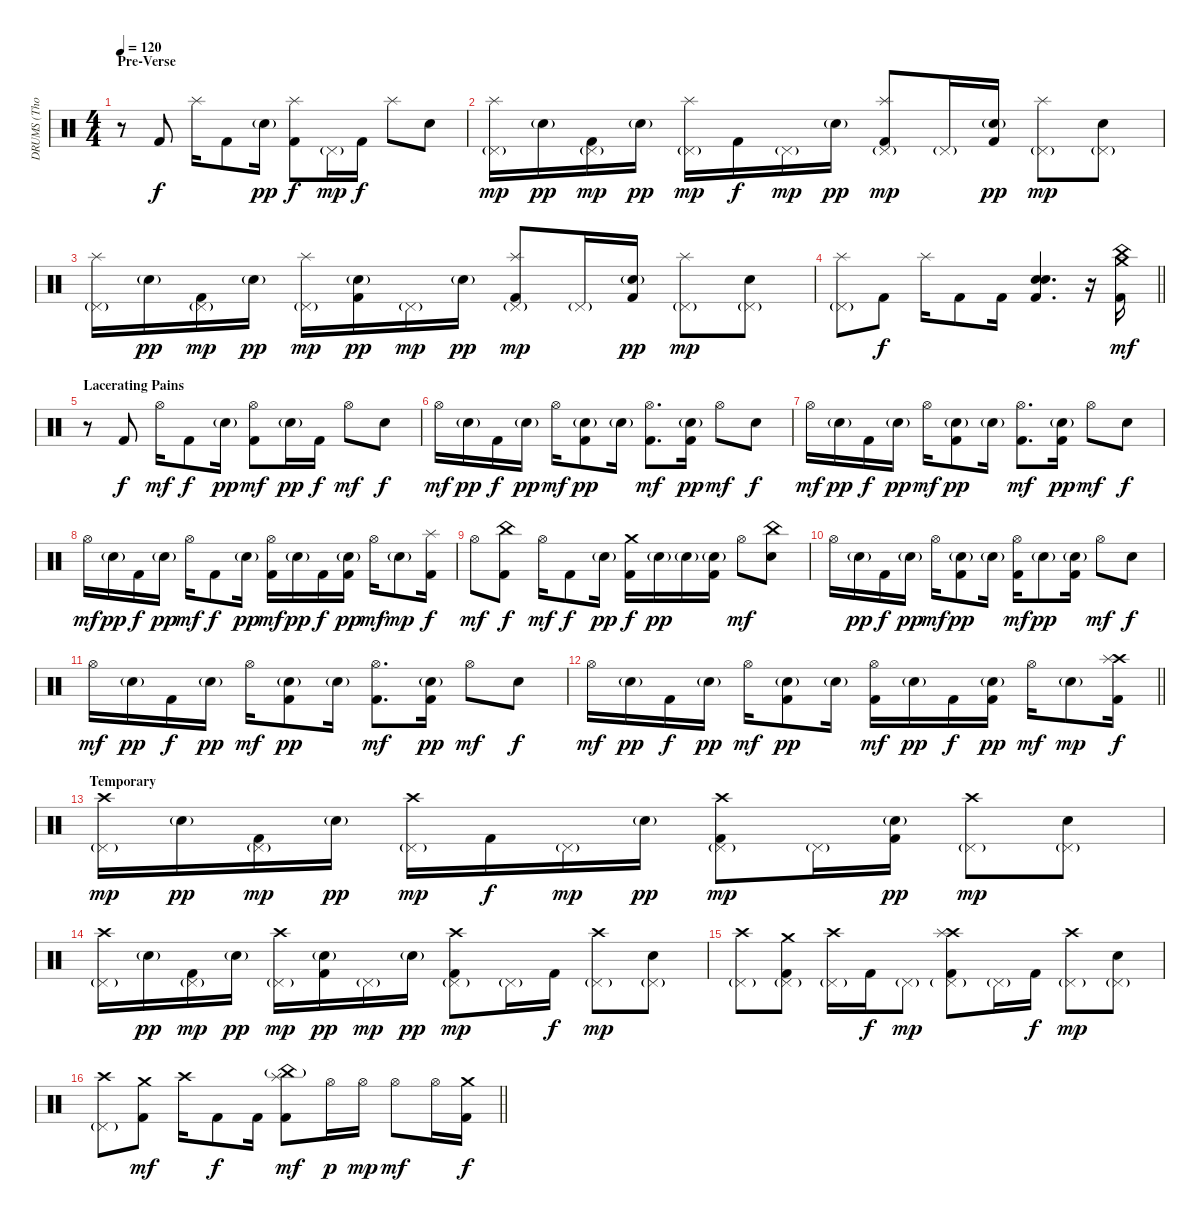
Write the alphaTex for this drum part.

\track ("DRUMS (Thomas Haake)" "DRUMS (Tho") {instrument percussion}
\staff {score}
\articulation defaults
\ts (4 4)
\section ("" "Pre-Verse")
\tempo 120
\clef neutral
\ks c
r.8{dy mf} "Kick (hit) 2".8{dy f} "Splash (hit)".16 "Kick (hit) 2".8 "Electric Snare (hit)"{g}.16{dy pp} ("Splash (hit)" "Kick (hit) 2").8{dy f} "Pedal Hi-Hat (hit)"{g}.16{dy mp} "Kick (hit) 2".16{dy f} "Splash (hit)".8 "Electric Snare (hit)".8 |
("Splash (hit)" "Pedal Hi-Hat (hit)"{g}).16{dy mp} "Electric Snare (hit)"{g}.16{dy pp} ("Pedal Hi-Hat (hit)"{g} "Kick (hit) 2").16{dy mp} "Electric Snare (hit)"{g}.16{dy pp} ("Splash (hit)" "Pedal Hi-Hat (hit)"{g}).16{dy mp} "Kick (hit) 2".16{dy f} "Pedal Hi-Hat (hit)"{g}.16{dy mp} "Electric Snare (hit)"{g}.16{dy pp} ("Splash (hit)" "Pedal Hi-Hat (hit)"{g} "Kick (hit) 2").8{dy mp} "Pedal Hi-Hat (hit)"{g}.16 ("Electric Snare (hit)"{g} "Kick (hit) 2").16{dy pp} ("Splash (hit)" "Pedal Hi-Hat (hit)"{g}).8{dy mp} ("Pedal Hi-Hat (hit)"{g} "Electric Snare (hit)").8 |
("Splash (hit)" "Pedal Hi-Hat (hit)"{g}).16 "Electric Snare (hit)"{g}.16{dy pp} ("Pedal Hi-Hat (hit)"{g} "Kick (hit) 2").16{dy mp} "Electric Snare (hit)"{g}.16{dy pp} ("Splash (hit)" "Pedal Hi-Hat (hit)"{g}).16{dy mp} ("Electric Snare (hit)"{g} "Kick (hit) 2").16{dy pp} "Pedal Hi-Hat (hit)"{g}.16{dy mp} "Electric Snare (hit)"{g}.16{dy pp} ("Splash (hit)" "Pedal Hi-Hat (hit)"{g} "Kick (hit) 2").8{dy mp} "Pedal Hi-Hat (hit)"{g}.16 ("Electric Snare (hit)"{g} "Kick (hit) 2").16{dy pp} ("Splash (hit)" "Pedal Hi-Hat (hit)"{g}).8{dy mp} ("Pedal Hi-Hat (hit)"{g} "Electric Snare (hit)").8 |
\barLineRight lightlight
("Splash (hit)" "Pedal Hi-Hat (hit)"{g}).8 "Kick (hit) 2".8{dy f} "Splash (hit)".16 "Kick (hit) 2".8 "Kick (hit) 2".16 ("Electric Snare (hit)" "Electric Snare (hit)" "Kick (hit) 2").4{d bd 30} r.16 ("Crash medium (hit)" "China (hit)" "Kick (hit) 2").16{dy mf} |
\section ("" "Lacerating Pains")
r.8 "Kick (hit) 2".8{dy f} "Hi-Hat (open)".16{dy mf} "Kick (hit) 2".8{dy f} "Electric Snare (hit)"{g}.16{dy pp} ("Hi-Hat (open)" "Kick (hit) 2").8{dy mf} "Electric Snare (hit)"{g}.16{dy pp} "Kick (hit) 2".16{dy f} "Hi-Hat (open)".8{dy mf} "Electric Snare (hit)".8{dy f} |
"Hi-Hat (open)".16{dy mf} "Electric Snare (hit)"{g}.16{dy pp} "Kick (hit) 2".16{dy f} "Electric Snare (hit)"{g}.16{dy pp} "Hi-Hat (open)".16{dy mf} ("Electric Snare (hit)"{g} "Kick (hit) 2").8{dy pp} "Electric Snare (hit)"{g}.16 ("Hi-Hat (open)" "Kick (hit) 2").8{d dy mf} ("Electric Snare (hit)"{g} "Kick (hit) 2").16{dy pp} "Hi-Hat (open)".8{dy mf} "Electric Snare (hit)".8{dy f} |
"Hi-Hat (open)".16{dy mf} "Electric Snare (hit)"{g}.16{dy pp} "Kick (hit) 2".16{dy f} "Electric Snare (hit)"{g}.16{dy pp} "Hi-Hat (open)".16{dy mf} ("Electric Snare (hit)"{g} "Kick (hit) 2").8{dy pp} "Electric Snare (hit)"{g}.16 ("Hi-Hat (open)" "Kick (hit) 2").8{d dy mf} ("Electric Snare (hit)"{g} "Kick (hit) 2").16{dy pp} "Hi-Hat (open)".8{dy mf} "Electric Snare (hit)".8{dy f} |
"Hi-Hat (open)".16{dy mf} "Electric Snare (hit)"{g}.16{dy pp} "Kick (hit) 2".16{dy f} "Electric Snare (hit)"{g}.16{dy pp} "Hi-Hat (open)".16{dy mf} "Kick (hit) 2".8{dy f} "Electric Snare (hit)"{g}.16{dy pp} ("Hi-Hat (open)" "Kick (hit) 2").16{dy mf} "Electric Snare (hit)"{g}.16{dy pp} "Kick (hit) 2".16{dy f} ("Electric Snare (hit)"{g} "Kick (hit) 2").16{dy pp} "Hi-Hat (open)".16{dy mf} "Electric Snare (hit)"{g}.8{dy mp} ("Splash (hit)" "Kick (hit) 2").16{dy f} |
"Hi-Hat (open)".8{dy mf} ("China (hit)" "Kick (hit) 2").8{dy f} "Hi-Hat (open)".16{dy mf} "Kick (hit) 2".8{dy f} "Electric Snare (hit)"{g}.16{dy pp} ("Crash medium (hit)" "Kick (hit) 2").16{dy f} "Electric Snare (hit)"{g}.16{dy pp} "Electric Snare (hit)"{g}.16 ("Electric Snare (hit)"{g} "Kick (hit) 2").16 "Hi-Hat (open)".8{dy mf} ("China (hit)" "Electric Snare (hit)").8 |
"Hi-Hat (open)".16 "Electric Snare (hit)"{g}.16{dy pp} "Kick (hit) 2".16{dy f} "Electric Snare (hit)"{g}.16{dy pp} "Hi-Hat (open)".16{dy mf} ("Electric Snare (hit)"{g} "Kick (hit) 2").8{dy pp} "Electric Snare (hit)"{g}.16 ("Hi-Hat (open)" "Kick (hit) 2").16{dy mf} "Electric Snare (hit)"{g}.8{dy pp} ("Electric Snare (hit)"{g} "Kick (hit) 2").16 "Hi-Hat (open)".8{dy mf} "Electric Snare (hit)".8{dy f} |
"Hi-Hat (open)".16{dy mf} "Electric Snare (hit)"{g}.16{dy pp} "Kick (hit) 2".16{dy f} "Electric Snare (hit)"{g}.16{dy pp} "Hi-Hat (open)".16{dy mf} ("Electric Snare (hit)"{g} "Kick (hit) 2").8{dy pp} "Electric Snare (hit)"{g}.16 ("Hi-Hat (open)" "Kick (hit) 2").8{d dy mf} ("Electric Snare (hit)"{g} "Kick (hit) 2").16{dy pp} "Hi-Hat (open)".8{dy mf} "Electric Snare (hit)".8{dy f} |
\barLineRight lightlight "Hi-Hat (open)".16{dy mf} "Electric Snare (hit)"{g}.16{dy pp} "Kick (hit) 2".16{dy f} "Electric Snare (hit)"{g}.16{dy pp} "Hi-Hat (open)".16{dy mf}
("Electric Snare (hit)"{g} "Kick (hit) 2").8{dy pp} "Electric Snare (hit)"{g}.16 ("Hi-Hat (open)" "Kick (hit) 2").16{dy mf} "Electric Snare (hit)"{g}.16{dy pp} "Kick (hit) 2".16{dy f} ("Electric Snare (hit)"{g} "Kick (hit) 2").16{dy pp} "Hi-Hat (open)".16{dy mf} "Electric Snare (hit)"{g}.8{dy mp} ("Crash high (hit)" "Splash (hit)" "Kick (hit) 2").16{dy f} |
\section ("" "Temporary")
("Crash high (hit)" "Pedal Hi-Hat (hit)"{g}).16{dy mp} "Electric Snare (hit)"{g}.16{dy pp} ("Pedal Hi-Hat (hit)"{g} "Kick (hit) 2").16{dy mp} "Electric Snare (hit)"{g}.16{dy pp} ("Crash high (hit)" "Pedal Hi-Hat (hit)"{g}).16{dy mp} "Kick (hit) 2".16{dy f} "Pedal Hi-Hat (hit)"{g}.16{dy mp} "Electric Snare (hit)"{g}.16{dy pp} ("Crash high (hit)" "Pedal Hi-Hat (hit)"{g} "Kick (hit) 2").8{dy mp} "Pedal Hi-Hat (hit)"{g}.16 ("Electric Snare (hit)"{g} "Kick (hit) 2").16{dy pp} ("Crash high (hit)" "Pedal Hi-Hat (hit)"{g}).8{dy mp} ("Pedal Hi-Hat (hit)"{g} "Electric Snare (hit)").8 |
("Crash high (hit)" "Pedal Hi-Hat (hit)"{g}).16 "Electric Snare (hit)"{g}.16{dy pp} ("Pedal Hi-Hat (hit)"{g} "Kick (hit) 2").16{dy mp} "Electric Snare (hit)"{g}.16{dy pp} ("Crash high (hit)" "Pedal Hi-Hat (hit)"{g}).16{dy mp} ("Electric Snare (hit)"{g} "Kick (hit) 2").16{dy pp} "Pedal Hi-Hat (hit)"{g}.16{dy mp} "Electric Snare (hit)"{g}.16{dy pp} ("Crash high (hit)" "Pedal Hi-Hat (hit)"{g} "Kick (hit) 2").8{dy mp} "Pedal Hi-Hat (hit)"{g}.16 "Kick (hit) 2".16{dy f} ("Crash high (hit)" "Pedal Hi-Hat (hit)"{g}).8{dy mp} ("Pedal Hi-Hat (hit)"{g} "Electric Snare (hit)").8 |
("Crash high (hit)" "Pedal Hi-Hat (hit)"{g}).8 ("Crash medium (hit)" "Pedal Hi-Hat (hit)"{g} "Kick (hit) 2").8 ("Crash high (hit)" "Pedal Hi-Hat (hit)"{g}).16 "Kick (hit) 2".16{dy f} "Pedal Hi-Hat (hit)"{g}.8{dy mp} ("Crash high (hit)" "Pedal Hi-Hat (hit)"{g} "Splash (hit)" "Kick (hit) 2").8 "Pedal Hi-Hat (hit)"{g}.16 "Kick (hit) 2".16{dy f} ("Crash high (hit)" "Pedal Hi-Hat (hit)"{g}).8{dy mp} ("Pedal Hi-Hat (hit)"{g} "Electric Snare (hit)").8 |
\barLineRight lightlight
("Crash high (hit)" "Pedal Hi-Hat (hit)"{g}).8 ("Crash medium (hit)" "Kick (hit) 2").8{dy mf} "Crash high (hit)".16 "Kick (hit) 2".8{dy f} "Kick (hit) 2".16 ("Splash (hit)" "China (hit)"{g} "Kick (hit) 2").8{dy mf} "Hi-Hat (open)".16{dy p} "Hi-Hat (open)".16{dy mp} "Hi-Hat (open)".8{dy mf} "Hi-Hat (open)".16 ("Crash medium (hit)" "Kick (hit) 2").16{dy f}
